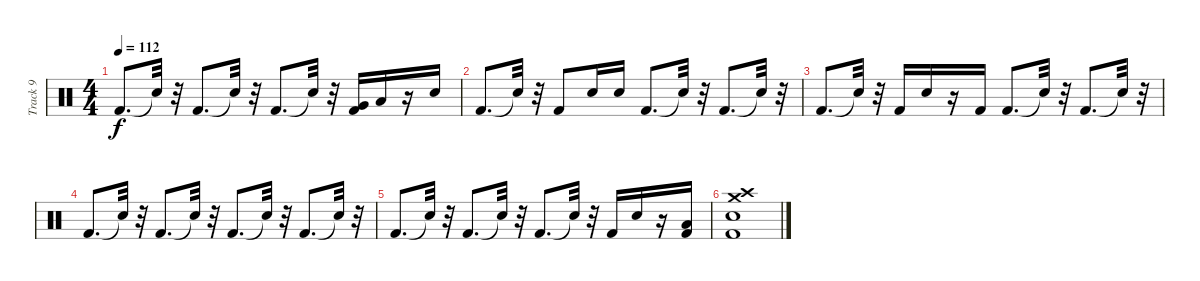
\track ("Track 9" "Track 9") {instrument percussion}
\staff {score}
\articulation defaults
\ts (4 4)
\tempo 112
\clef neutral
\ks c "Kick (hit) 2".8{d dy f} "Snare (hit)"{t}.32
r.32 "Kick (hit) 2".8{d} "Snare (hit)"{t}.32 r.32 "Kick (hit) 2".8{d} "Snare (hit)"{t}.32 r.32 ("Kick (hit) 2" "Very Low Tom (hit)").16 "Low Floor Tom (hit)".16 r.16 "Snare (hit) 2".16 |
"Kick (hit) 2".8{d} "Snare (hit)"{t}.32 r.32 "Kick (hit) 2".8 "Snare (hit) 2".16 "Snare (hit) 2".16 "Kick (hit) 2".8{d} "Snare (hit)"{t}.32 r.32 "Kick (hit) 2".8{d} "Snare (hit)"{t}.32 r.32 |
"Kick (hit) 2".8{d} "Snare (hit)"{t}.32 r.32 "Kick (hit) 2".16 "Snare (hit) 2".16 r.16 "Kick (hit) 2".16 "Kick (hit) 2".8{d} "Snare (hit)"{t}.32 r.32 "Kick (hit) 2".8{d} "Snare (hit)"{t}.32 r.32 |
"Kick (hit) 2".8{d} "Snare (hit)"{t}.32 r.32 "Kick (hit) 2".8{d} "Snare (hit)"{t}.32 r.32 "Kick (hit) 2".8{d} "Snare (hit)"{t}.32 r.32 "Kick (hit) 2".8{d} "Snare (hit)"{t}.32 r.32 |
"Kick (hit) 2".8{d} "Snare (hit)"{t}.32 r.32 "Kick (hit) 2".8{d} "Snare (hit)"{t}.32 r.32 "Kick (hit) 2".8{d} "Snare (hit)"{t}.32 r.32 "Kick (hit) 2".16 "Snare (hit) 2".16 r.16 ("Kick (hit) 2" "Low Floor Tom (hit)").16 |
("Crash medium (hit)" "Crash high (hit)" "Electric Snare (hit)" "Kick (hit) 2").1
